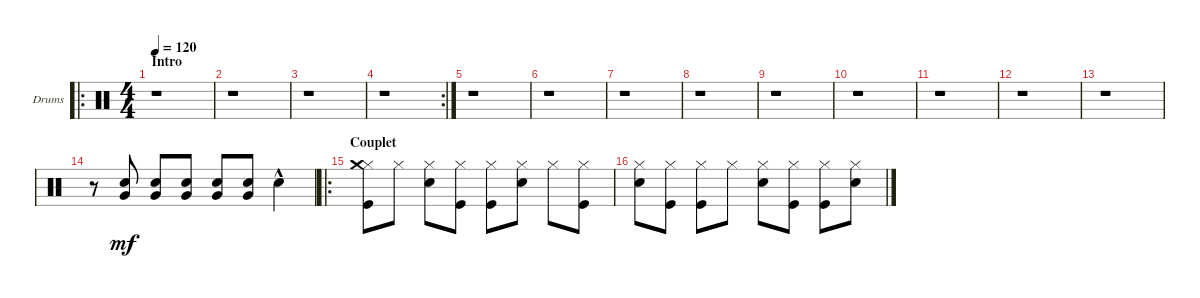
\defaultSystemsLayout 4
\bracketExtendMode groupsimilarinstruments
\firstSystemTrackNameOrientation horizontal
\otherSystemsTrackNameOrientation horizontal
\track ("Drumkit" "Drums") {instrument percussion}
\staff {score}
\articulation defaults
\ro
\ts (4 4)
\section ("" "Intro")
\tempo 120
\clef neutral
\scale
0.502222
\ks c
r.1{dy mf} |
\scale
0.248889 r.1 |
\scale
0.248889 r.1 |
\rc 2
\scale
0.356322 r.1 |
\scale
0.321839 r.1 |
\scale
0.321839 r.1 |
\scale
0.333333 r.1 |
\scale
0.333333 r.1 |
\scale
0.333333 r.1 |
\scale
0.333333 r.1 |
\scale
0.333333 r.1 |
\scale
0.333333 r.1 |
\scale
0.333333 r.1 |
\scale
0.333333 r.8 ("Snare (hit) 2" "Very Low Tom (hit)").8 ("Snare (hit) 2" "Very Low Tom (hit)").8 ("Snare (hit) 2" "Very Low Tom (hit)").8 ("Snare (hit) 2" "Very Low Tom (hit)").8 ("Snare (hit) 2" "Very Low Tom (hit)").8 "Snare (hit) 2"{hac}.4 |
\ro
\section ("" "Couplet")
\scale
0.333333 ("Kick (hit)" "Hi-Hat (closed)" "Crash medium (hit)").8 "Hi-Hat (closed)".8 ("Snare (hit) 2" "Hi-Hat (closed)").8 ("Kick (hit)" "Hi-Hat (closed)").8 ("Kick (hit)" "Hi-Hat (closed)").8 ("Snare (hit) 2" "Hi-Hat (closed)").8 "Hi-Hat (closed)".8 ("Kick (hit)" "Hi-Hat (closed)").8 |
\scale
0.333333 ("Hi-Hat (closed)" "Snare (hit) 2").8 ("Hi-Hat (closed)" "Kick (hit)").8 ("Kick (hit)" "Hi-Hat (closed)").8 "Hi-Hat (closed)".8 ("Snare (hit) 2" "Hi-Hat (closed)").8 ("Kick (hit)" "Hi-Hat (closed)").8 ("Kick (hit)" "Hi-Hat (closed)").8 ("Snare (hit) 2" "Hi-Hat (closed)").8
